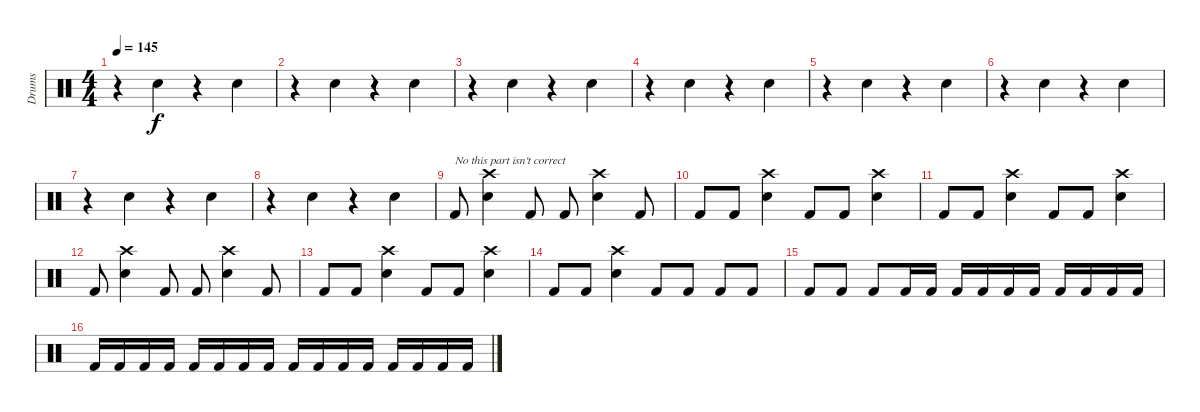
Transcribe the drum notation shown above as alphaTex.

\track ("Drums" "Drums") {instrument percussion}
\staff {score}
\articulation defaults
\ts (4 4)
\tempo 145
\clef neutral
\ks c
r.4{dy f} "Snare (hit) 2".4 r.4 "Snare (hit) 2".4 |
r.4 "Snare (hit) 2".4 r.4 "Snare (hit) 2".4 |
r.4 "Snare (hit) 2".4 r.4 "Snare (hit) 2".4 |
r.4 "Snare (hit) 2".4 r.4 "Snare (hit) 2".4 |
r.4 "Snare (hit) 2".4 r.4 "Snare (hit) 2".4 |
r.4 "Snare (hit) 2".4 r.4 "Snare (hit) 2".4 |
r.4 "Snare (hit) 2".4 r.4 "Snare (hit) 2".4 |
r.4 "Snare (hit) 2".4 r.4 "Snare (hit) 2".4 |
"Kick (hit) 2".8{txt "No this part isn't correct"} ("Crash high (hit)" "Snare (hit) 2").4 "Kick (hit) 2".8 "Kick (hit) 2".8 ("Crash high (hit)" "Snare (hit) 2").4 "Kick (hit) 2".8 |
"Kick (hit) 2".8 "Kick (hit) 2".8 ("Crash high (hit)" "Snare (hit) 2").4 "Kick (hit) 2".8 "Kick (hit) 2".8 ("Crash high (hit)" "Snare (hit) 2").4 |
"Kick (hit) 2".8 "Kick (hit) 2".8 ("Crash high (hit)" "Snare (hit) 2").4 "Kick (hit) 2".8 "Kick (hit) 2".8 ("Crash high (hit)" "Snare (hit) 2").4 |
"Kick (hit) 2".8 ("Crash high (hit)" "Snare (hit) 2").4 "Kick (hit) 2".8 "Kick (hit) 2".8 ("Crash high (hit)" "Snare (hit) 2").4 "Kick (hit) 2".8 |
"Kick (hit) 2".8 "Kick (hit) 2".8 ("Crash high (hit)" "Snare (hit) 2").4 "Kick (hit) 2".8 "Kick (hit) 2".8 ("Crash high (hit)" "Snare (hit) 2").4 |
"Kick (hit) 2".8 "Kick (hit) 2".8 ("Crash high (hit)" "Snare (hit) 2").4 "Kick (hit) 2".8 "Kick (hit) 2".8 "Kick (hit) 2".8 "Kick (hit) 2".8 |
"Kick (hit) 2".8 "Kick (hit) 2".8 "Kick (hit) 2".8 "Kick (hit) 2".16 "Kick (hit) 2".16 "Kick (hit) 2".16 "Kick (hit) 2".16 "Kick (hit) 2".16 "Kick (hit) 2".16 "Kick (hit) 2".16 "Kick (hit) 2".16 "Kick (hit) 2".16 "Kick (hit) 2".16 |
"Kick (hit) 2".16 "Kick (hit) 2".16 "Kick (hit) 2".16 "Kick (hit) 2".16 "Kick (hit) 2".16 "Kick (hit) 2".16 "Kick (hit) 2".16 "Kick (hit) 2".16 "Kick (hit) 2".16 "Kick (hit) 2".16 "Kick (hit) 2".16 "Kick (hit) 2".16 "Kick (hit) 2".16 "Kick (hit) 2".16 "Kick (hit) 2".16 "Kick (hit) 2".16
